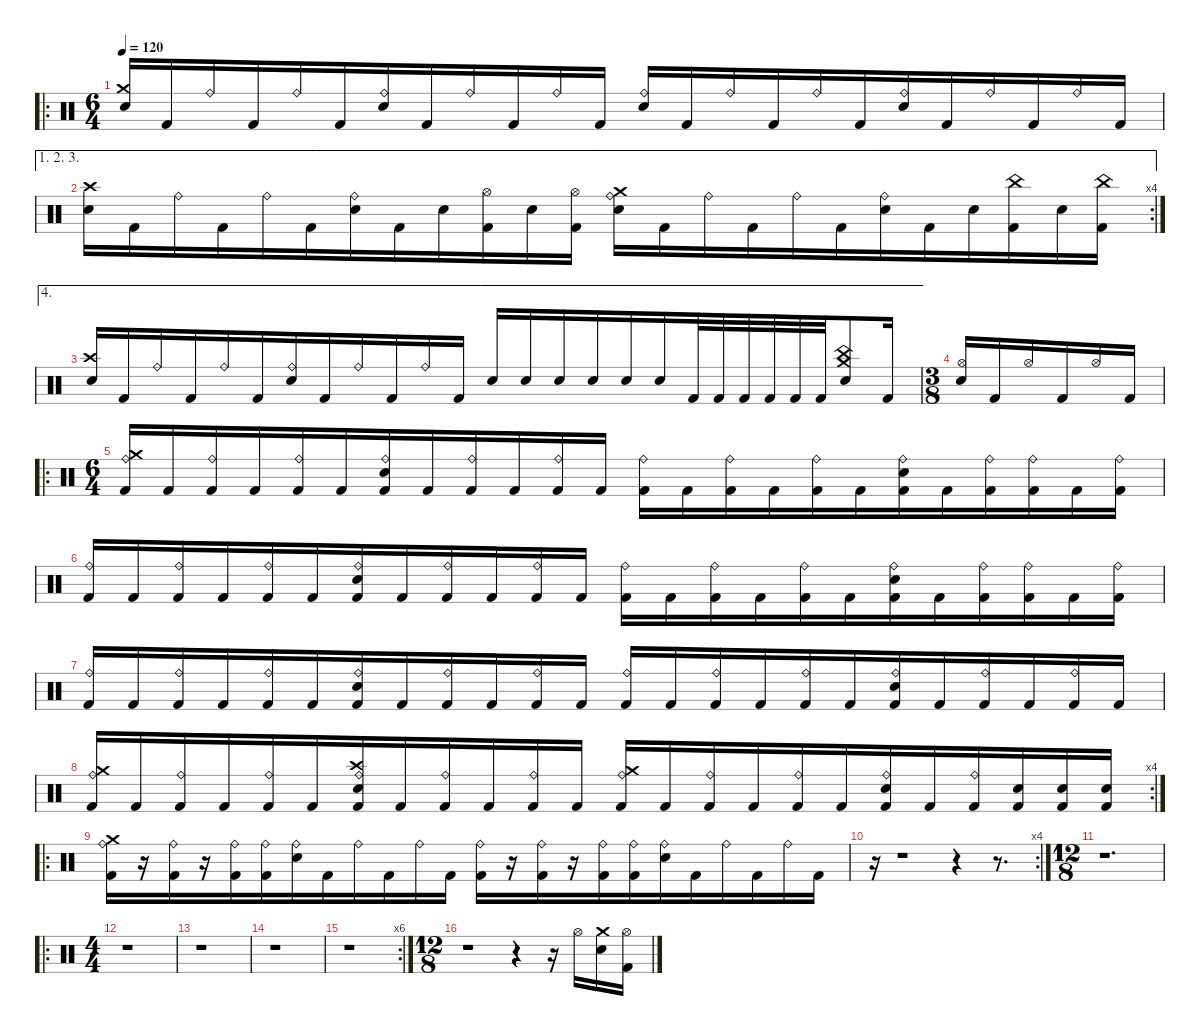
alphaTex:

\defaultSystemsLayout 4
\hideDynamics
\bracketExtendMode nobrackets
\singleTrackTrackNamePolicy hidden
\multiTrackTrackNamePolicy hidden
\firstSystemTrackNameMode fullname
\firstSystemTrackNameOrientation horizontal
\otherSystemsTrackNameOrientation horizontal
\track ("Drum set" "drm.") {instrument percussion}
\staff {score}
\articulation defaults
\ro
\ts (6 4)
\beaming (8 6 6)
\tempo 120
\clef neutral
\ks c
("Crash medium (hit)" "Snare (hit) 2").16{dy f beam Up} "Kick (hit) 2".16{beam Up} "Ride (bell)".16{beam Up} "Kick (hit) 2".16{beam Up} "Ride (bell)".16{beam Up} "Kick (hit) 2".16{beam Up} ("Ride (bell)" "Snare (hit) 2").16{beam Up} "Kick (hit) 2".16{beam Up} "Ride (bell)".16{beam Up} "Kick (hit) 2".16{beam Up} "Ride (bell)".16{beam Up} "Kick (hit) 2".16{beam Up} ("Ride (bell)" "Snare (hit) 2").16{beam Up} "Kick (hit) 2".16{beam Up} "Ride (bell)".16{beam Up} "Kick (hit) 2".16{beam Up} "Ride (bell)".16{beam Up} "Kick (hit) 2".16{beam Up} ("Ride (bell)" "Snare (hit) 2").16{beam Up} "Kick (hit) 2".16{beam Up} "Ride (bell)".16{beam Up} "Kick (hit) 2".16{beam Up} "Ride (bell)".16{beam Up} "Kick (hit) 2".16{beam Up} |
\ae (1 2 3)
\rc 4
("Crash high (hit)" "Snare (hit) 2").16{beam Down} "Kick (hit) 2".16{beam Down} "Ride (bell)".16{beam Down} "Kick (hit) 2".16{beam Down} "Ride (bell)".16{beam Down} "Kick (hit) 2".16{beam Down} ("Ride (bell)" "Snare (hit) 2").16{beam Down} "Kick (hit) 2".16{beam Down} "Snare (hit) 2".16{beam Down} ("Hi-Hat (open)" "Kick (hit) 2").16{beam Down} "Snare (hit) 2".16{beam Down} ("Hi-Hat (open)" "Kick (hit) 2").16{beam Down} ("Crash medium (hit)" "Ride (bell)" "Snare (hit) 2").16{beam Down} "Kick (hit) 2".16{beam Down} "Ride (bell)".16{beam Down} "Kick (hit) 2".16{beam Down} "Ride (bell)".16{beam Down} "Kick (hit) 2".16{beam Down} ("Ride (bell)" "Snare (hit) 2").16{beam Down} "Kick (hit) 2".16{beam Down} "Snare (hit) 2".16{beam Down} ("China (hit)" "Kick (hit) 2").16{beam Down} "Snare (hit) 2".16{beam Down} ("China (hit)" "Kick (hit) 2").16{beam Down} |
\ae 4
("Crash high (hit)" "Snare (hit) 2").16{beam Up} "Kick (hit) 2".16{beam Up} "Ride (bell)".16{beam Up} "Kick (hit) 2".16{beam Up} "Ride (bell)".16{beam Up} "Kick (hit) 2".16{beam Up} ("Ride (bell)" "Snare (hit) 2").16{beam Up} "Kick (hit) 2".16{beam Up} "Ride (bell)".16{beam Up} "Kick (hit) 2".16{beam Up} "Ride (bell)".16{beam Up} "Kick (hit) 2".16{beam Up} "Snare (hit) 2".16{beam Up} "Snare (hit) 2".16{beam Up} "Snare (hit) 2".16{beam Up} "Snare (hit) 2".16{beam Up} "Snare (hit) 2".16{beam Up} "Snare (hit) 2".16{beam Up} "Kick (hit) 2".32{beam Up} "Kick (hit) 2".32{beam Up} "Kick (hit) 2".32{beam Up} "Kick (hit) 2".32{beam Up} "Kick (hit) 2".32{beam Up} "Kick (hit) 2".32{beam Up} ("China (hit)" "Crash medium (hit)" "Snare (hit) 2").8{beam Up} "Kick (hit) 2".16{beam Up} |
\ts (3 8)
\beaming (8 3)
("Hi-Hat (open)" "Snare (hit) 2").16{beam Up} "Kick (hit) 2".16{beam Up} "Hi-Hat (open)".16{beam Up} "Kick (hit) 2".16{beam Up} "Hi-Hat (open)".16{beam Up} "Kick (hit) 2".16{beam Up} |
\ro
\ts (6 4)
\beaming (8 6 6)
("Crash medium (hit)" "Ride (bell)" "Kick (hit) 2").16{beam Up} "Kick (hit) 2".16{beam Up} ("Ride (bell)" "Kick (hit) 2").16{beam Up} "Kick (hit) 2".16{beam Up} ("Ride (bell)" "Kick (hit) 2").16{beam Up} "Kick (hit) 2".16{beam Up} ("Ride (bell)" "Snare (hit) 2" "Kick (hit) 2").16{beam Up} "Kick (hit) 2".16{beam Up} ("Ride (bell)" "Kick (hit) 2").16{beam Up} "Kick (hit) 2".16{beam Up} ("Ride (bell)" "Kick (hit) 2").16{beam Up} "Kick (hit) 2".16{beam Up} ("Ride (bell)" "Kick (hit) 2").16{beam Down} "Kick (hit) 2".16{beam Down} ("Ride (bell)" "Kick (hit) 2").16{beam Down} "Kick (hit) 2".16{beam Down} ("Ride (bell)" "Kick (hit) 2").16{beam Down} "Kick (hit) 2".16{beam Down} ("Ride (bell)" "Snare (hit) 2" "Kick (hit) 2").16{beam Down} "Kick (hit) 2".16{beam Down} ("Ride (bell)" "Kick (hit) 2").16{beam Down} ("Ride (bell)" "Kick (hit) 2").16{beam Down} "Kick (hit) 2".16{beam Down} ("Ride (bell)" "Kick (hit) 2").16{beam Down} |
("Ride (bell)" "Kick (hit) 2").16{beam Up} "Kick (hit) 2".16{beam Up} ("Ride (bell)" "Kick (hit) 2").16{beam Up} "Kick (hit) 2".16{beam Up} ("Ride (bell)" "Kick (hit) 2").16{beam Up} "Kick (hit) 2".16{beam Up} ("Ride (bell)" "Snare (hit) 2" "Kick (hit) 2").16{beam Up} "Kick (hit) 2".16{beam Up} ("Ride (bell)" "Kick (hit) 2").16{beam Up} "Kick (hit) 2".16{beam Up} ("Ride (bell)" "Kick (hit) 2").16{beam Up} "Kick (hit) 2".16{beam Up} ("Ride (bell)" "Kick (hit) 2").16{beam Down} "Kick (hit) 2".16{beam Down} ("Ride (bell)" "Kick (hit) 2").16{beam Down} "Kick (hit) 2".16{beam Down} ("Ride (bell)" "Kick (hit) 2").16{beam Down} "Kick (hit) 2".16{beam Down} ("Ride (bell)" "Snare (hit) 2" "Kick (hit) 2").16{beam Down} "Kick (hit) 2".16{beam Down} ("Ride (bell)" "Kick (hit) 2").16{beam Down} ("Ride (bell)" "Kick (hit) 2").16{beam Down} "Kick (hit) 2".16{beam Down} ("Ride (bell)" "Kick (hit) 2").16{beam Down} |
("Ride (bell)" "Kick (hit) 2").16{beam Up} "Kick (hit) 2".16{beam Up} ("Ride (bell)" "Kick (hit) 2").16{beam Up} "Kick (hit) 2".16{beam Up} ("Ride (bell)" "Kick (hit) 2").16{beam Up} "Kick (hit) 2".16{beam Up} ("Ride (bell)" "Snare (hit) 2" "Kick (hit) 2").16{beam Up} "Kick (hit) 2".16{beam Up} ("Ride (bell)" "Kick (hit) 2").16{beam Up} "Kick (hit) 2".16{beam Up} ("Ride (bell)" "Kick (hit) 2").16{beam Up} "Kick (hit) 2".16{beam Up} ("Ride (bell)" "Kick (hit) 2").16{beam Up} "Kick (hit) 2".16{beam Up} ("Ride (bell)" "Kick (hit) 2").16{beam Up} "Kick (hit) 2".16{beam Up} ("Ride (bell)" "Kick (hit) 2").16{beam Up} "Kick (hit) 2".16{beam Up} ("Ride (bell)" "Snare (hit) 2" "Kick (hit) 2").16{beam Up} "Kick (hit) 2".16{beam Up} ("Ride (bell)" "Kick (hit) 2").16{beam Up} "Kick (hit) 2".16{beam Up} ("Ride (bell)" "Kick (hit) 2").16{beam Up} "Kick (hit) 2".16{beam Up} |
\rc 4
("Crash medium (hit)" "Ride (bell)" "Kick (hit) 2").16{beam Up} "Kick (hit) 2".16{beam Up} ("Ride (bell)" "Kick (hit) 2").16{beam Up} "Kick (hit) 2".16{beam Up} ("Ride (bell)" "Kick (hit) 2").16{beam Up} "Kick (hit) 2".16{beam Up} ("Crash high (hit)" "Ride (bell)" "Snare (hit) 2" "Kick (hit) 2").16{beam Up} "Kick (hit) 2".16{beam Up} ("Ride (bell)" "Kick (hit) 2").16{beam Up} "Kick (hit) 2".16{beam Up} ("Ride (bell)" "Kick (hit) 2").16{beam Up} "Kick (hit) 2".16{beam Up} ("Crash medium (hit)" "Ride (bell)" "Kick (hit) 2").16{beam Up} "Kick (hit) 2".16{beam Up} ("Ride (bell)" "Kick (hit) 2").16{beam Up} "Kick (hit) 2".16{beam Up} ("Ride (bell)" "Kick (hit) 2").16{beam Up} "Kick (hit) 2".16{beam Up} ("Ride (bell)" "Snare (hit) 2" "Kick (hit) 2").16{beam Up} "Kick (hit) 2".16{beam Up} ("Ride (bell)" "Kick (hit) 2").16{beam Up} ("Snare (hit) 2" "Kick (hit) 2").16{beam Up} ("Snare (hit) 2" "Kick (hit) 2").16{beam Up} ("Snare (hit) 2" "Kick (hit) 2").16{beam Up} |
\ro
("Crash medium (hit)" "Ride (bell)" "Kick (hit) 2").16{beam Down} r.16{beam Down} ("Ride (bell)" "Kick (hit) 2").16{beam Down} r.16{beam Down} ("Ride (bell)" "Kick (hit) 2").16{beam Down} ("Ride (bell)" "Kick (hit) 2").16{beam Down} ("Ride (bell)" "Snare (hit) 2").16{beam Down} "Kick (hit) 2".16{beam Down} "Ride (bell)".16{beam Down} "Kick (hit) 2".16{beam Down} "Ride (bell)".16{beam Down} "Kick (hit) 2".16{beam Down} ("Ride (bell)" "Kick (hit) 2").16{beam Down} r.16{beam Down} ("Ride (bell)" "Kick (hit) 2").16{beam Down} r.16{beam Down} ("Ride (bell)" "Kick (hit) 2").16{beam Down} ("Ride (bell)" "Kick (hit) 2").16{beam Down} ("Ride (bell)" "Snare (hit) 2").16{beam Down} "Kick (hit) 2".16{beam Down} "Ride (bell)".16{beam Down} "Kick (hit) 2".16{beam Down} "Ride (bell)".16{beam Down} "Kick (hit) 2".16{beam Down} |
\rc 4
r.16{beam Down} r.1{beam Down} r.4{beam Down} r.8{d beam Down} |
\ts (12 8)
\beaming (8 3 3 3 3)
r.1{d beam Down} |
\ro
\ts (4 4)
\beaming (8 2 2 2 2)
r.1{beam Down} |
r.1{beam Down} |
r.1{beam Down} |
\rc 6
r.1{beam Down} |
\ts (12 8)
\beaming (8 3 3 3 3)
r.1{beam Down} r.4{beam Down} r.16{beam Down} "Hi-Hat (open)".16{beam Down} ("Crash medium (hit)" "Snare (hit) 2").16{beam Down} ("Hi-Hat (open)" "Kick (hit) 2").16{beam Down}
